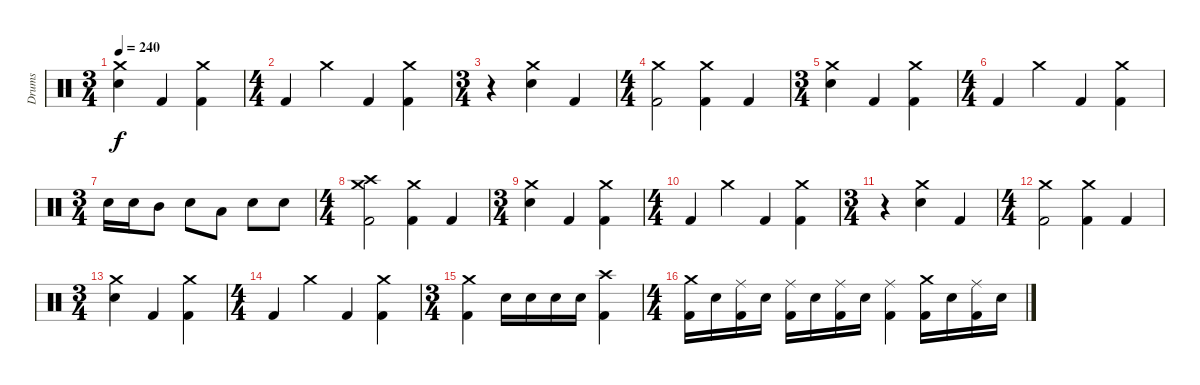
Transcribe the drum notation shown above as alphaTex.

\track ("Drums" "Drums") {instrument percussion}
\staff {score}
\articulation defaults
\ts (3 4)
\tempo 240
\clef neutral
\ks c
("Crash medium (hit)" "Electric Snare (hit)").4{dy f} "Kick (hit) 2".4 ("Crash medium (hit)" "Kick (hit) 2").4 |
\ts (4 4)
"Kick (hit) 2".4 "Crash medium (hit)".4 "Kick (hit) 2".4 ("Crash medium (hit)" "Kick (hit) 2").4 |
\ts (3 4)
r.4 ("Crash medium (hit)" "Electric Snare (hit)").4 "Kick (hit) 2".4 |
\ts (4 4)
("Crash medium (hit)" "Kick (hit) 2").2 ("Crash medium (hit)" "Kick (hit) 2").4 "Kick (hit) 2".4 |
\ts (3 4)
("Crash medium (hit)" "Electric Snare (hit)").4 "Kick (hit) 2".4 ("Crash medium (hit)" "Kick (hit) 2").4 |
\ts (4 4)
"Kick (hit) 2".4 "Crash medium (hit)".4 "Kick (hit) 2".4 ("Crash medium (hit)" "Kick (hit) 2").4 |
\ts (3 4)
"Electric Snare (hit)".16 "Electric Snare (hit)".16 "Mid Tom (hit)".8 "Electric Snare (hit)".8 "Low Tom (hit)".8 "Electric Snare (hit)".8 "Electric Snare (hit)".8 |
\ts (4 4)
("Crash medium (hit)" "Crash high (hit)" "Kick (hit) 2").2 ("Crash medium (hit)" "Kick (hit) 2").4 "Kick (hit) 2".4 |
\ts (3 4)
("Crash medium (hit)" "Electric Snare (hit)").4 "Kick (hit) 2".4 ("Crash medium (hit)" "Kick (hit) 2").4 |
\ts (4 4)
"Kick (hit) 2".4 "Crash medium (hit)".4 "Kick (hit) 2".4 ("Crash medium (hit)" "Kick (hit) 2").4 |
\ts (3 4)
r.4 ("Crash medium (hit)" "Electric Snare (hit)").4 "Kick (hit) 2".4 |
\ts (4 4)
("Crash medium (hit)" "Kick (hit) 2").2 ("Crash medium (hit)" "Kick (hit) 2").4 "Kick (hit) 2".4 |
\ts (3 4)
("Crash medium (hit)" "Electric Snare (hit)").4 "Kick (hit) 2".4 ("Crash medium (hit)" "Kick (hit) 2").4 |
\ts (4 4)
"Kick (hit) 2".4 "Crash medium (hit)".4 "Kick (hit) 2".4 ("Crash medium (hit)" "Kick (hit) 2").4 |
\ts (3 4)
("Crash medium (hit)" "Kick (hit) 2").4 "Electric Snare (hit)".16 "Electric Snare (hit)".16 "Electric Snare (hit)".16 "Electric Snare (hit)".16 ("Crash high (hit)" "Kick (hit) 2").4 |
\ts (4 4)
("Crash medium (hit)" "Kick (hit) 2").16 "Electric Snare (hit)".16 ("Ride (middle)" "Kick (hit) 2").16 "Electric Snare (hit)".16 ("Ride (middle)" "Kick (hit) 2").16 "Electric Snare (hit)".16 ("Ride (middle)" "Kick (hit) 2").16 "Electric Snare (hit)".16 ("Ride (middle)" "Kick (hit) 2").4 ("Crash medium (hit)" "Kick (hit) 2").16 "Electric Snare (hit)".16 ("Ride (middle)" "Kick (hit) 2").16 "Electric Snare (hit)".16
